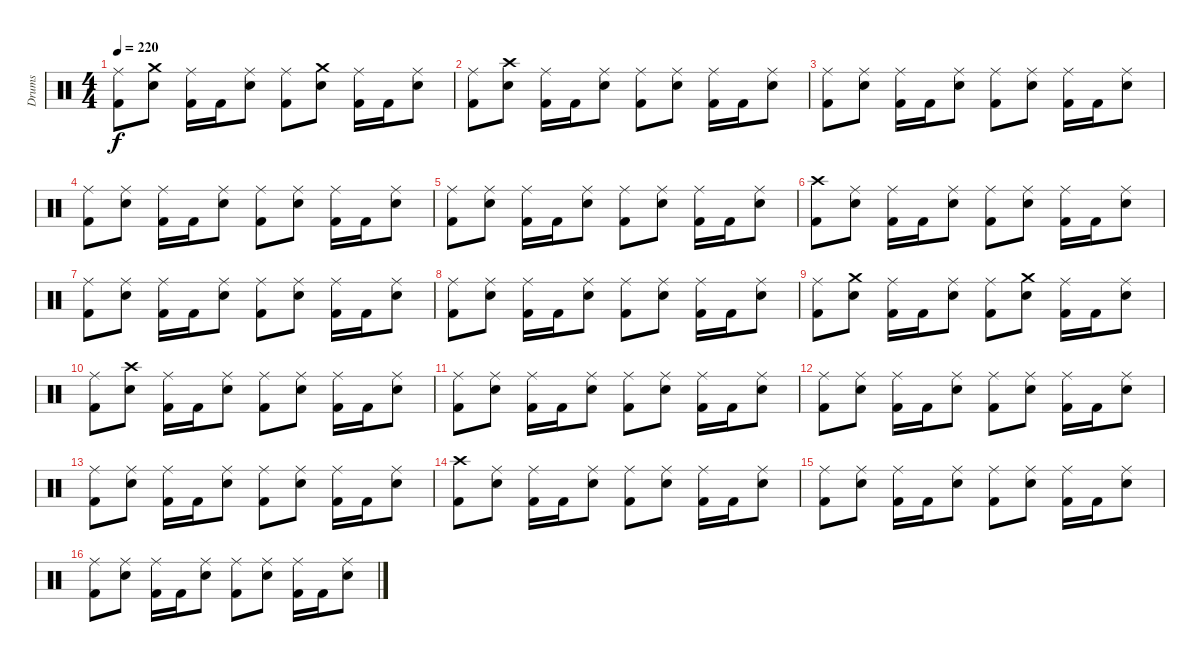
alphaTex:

\track ("Drums" "Drums") {instrument percussion}
\staff {score}
\articulation defaults
\ts (4 4)
\tempo 220
\clef neutral
\ks c
("Ride (middle)" "Kick (hit) 2").8{dy f} ("Crash medium (hit)" "Snare (hit) 2").8 ("Ride (middle)" "Kick (hit) 2").16 "Kick (hit) 2".16 ("Ride (middle)" "Snare (hit) 2").8 ("Ride (middle)" "Kick (hit) 2").8 ("Crash medium (hit)" "Snare (hit) 2").8 ("Ride (middle)" "Kick (hit) 2").16 "Kick (hit) 2".16 ("Ride (middle)" "Snare (hit) 2").8 |
("Ride (middle)" "Kick (hit) 2").8 ("Crash high (hit)" "Snare (hit) 2").8 ("Ride (middle)" "Kick (hit) 2").16 "Kick (hit) 2".16 ("Ride (middle)" "Snare (hit) 2").8 ("Ride (middle)" "Kick (hit) 2").8 ("Ride (middle)" "Snare (hit) 2").8 ("Ride (middle)" "Kick (hit) 2").16 "Kick (hit) 2".16 ("Ride (middle)" "Snare (hit) 2").8 |
("Ride (middle)" "Kick (hit) 2").8 ("Ride (middle)" "Snare (hit) 2").8 ("Ride (middle)" "Kick (hit) 2").16 "Kick (hit) 2".16 ("Ride (middle)" "Snare (hit) 2").8 ("Ride (middle)" "Kick (hit) 2").8 ("Ride (middle)" "Snare (hit) 2").8 ("Ride (middle)" "Kick (hit) 2").16 "Kick (hit) 2".16 ("Ride (middle)" "Snare (hit) 2").8 |
("Ride (middle)" "Kick (hit) 2").8 ("Ride (middle)" "Snare (hit) 2").8 ("Ride (middle)" "Kick (hit) 2").16 "Kick (hit) 2".16 ("Ride (middle)" "Snare (hit) 2").8 ("Ride (middle)" "Kick (hit) 2").8 ("Ride (middle)" "Snare (hit) 2").8 ("Ride (middle)" "Kick (hit) 2").16 "Kick (hit) 2".16 ("Ride (middle)" "Snare (hit) 2").8 |
("Ride (middle)" "Kick (hit) 2").8 ("Ride (middle)" "Snare (hit) 2").8 ("Ride (middle)" "Kick (hit) 2").16 "Kick (hit) 2".16 ("Ride (middle)" "Snare (hit) 2").8 ("Ride (middle)" "Kick (hit) 2").8 ("Ride (middle)" "Snare (hit) 2").8 ("Ride (middle)" "Kick (hit) 2").16 "Kick (hit) 2".16 ("Ride (middle)" "Snare (hit) 2").8 |
("Crash high (hit)" "Kick (hit) 2").8 ("Ride (middle)" "Snare (hit) 2").8 ("Ride (middle)" "Kick (hit) 2").16 "Kick (hit) 2".16 ("Ride (middle)" "Snare (hit) 2").8 ("Ride (middle)" "Kick (hit) 2").8 ("Ride (middle)" "Snare (hit) 2").8 ("Ride (middle)" "Kick (hit) 2").16 "Kick (hit) 2".16 ("Ride (middle)" "Snare (hit) 2").8 |
("Ride (middle)" "Kick (hit) 2").8 ("Ride (middle)" "Snare (hit) 2").8 ("Ride (middle)" "Kick (hit) 2").16 "Kick (hit) 2".16 ("Ride (middle)" "Snare (hit) 2").8 ("Ride (middle)" "Kick (hit) 2").8 ("Ride (middle)" "Snare (hit) 2").8 ("Ride (middle)" "Kick (hit) 2").16 "Kick (hit) 2".16 ("Ride (middle)" "Snare (hit) 2").8 |
("Ride (middle)" "Kick (hit) 2").8 ("Ride (middle)" "Snare (hit) 2").8 ("Ride (middle)" "Kick (hit) 2").16 "Kick (hit) 2".16 ("Ride (middle)" "Snare (hit) 2").8 ("Ride (middle)" "Kick (hit) 2").8 ("Ride (middle)" "Snare (hit) 2").8 ("Ride (middle)" "Kick (hit) 2").16 "Kick (hit) 2".16 ("Ride (middle)" "Snare (hit) 2").8 |
("Ride (middle)" "Kick (hit) 2").8 ("Crash medium (hit)" "Snare (hit) 2").8 ("Ride (middle)" "Kick (hit) 2").16 "Kick (hit) 2".16 ("Ride (middle)" "Snare (hit) 2").8 ("Ride (middle)" "Kick (hit) 2").8 ("Crash medium (hit)" "Snare (hit) 2").8 ("Ride (middle)" "Kick (hit) 2").16 "Kick (hit) 2".16 ("Ride (middle)" "Snare (hit) 2").8 |
("Ride (middle)" "Kick (hit) 2").8 ("Crash high (hit)" "Snare (hit) 2").8 ("Ride (middle)" "Kick (hit) 2").16 "Kick (hit) 2".16 ("Ride (middle)" "Snare (hit) 2").8 ("Ride (middle)" "Kick (hit) 2").8 ("Ride (middle)" "Snare (hit) 2").8 ("Ride (middle)" "Kick (hit) 2").16 "Kick (hit) 2".16 ("Ride (middle)" "Snare (hit) 2").8 |
("Ride (middle)" "Kick (hit) 2").8 ("Ride (middle)" "Snare (hit) 2").8 ("Ride (middle)" "Kick (hit) 2").16 "Kick (hit) 2".16 ("Ride (middle)" "Snare (hit) 2").8 ("Ride (middle)" "Kick (hit) 2").8 ("Ride (middle)" "Snare (hit) 2").8 ("Ride (middle)" "Kick (hit) 2").16 "Kick (hit) 2".16 ("Ride (middle)" "Snare (hit) 2").8 |
("Ride (middle)" "Kick (hit) 2").8 ("Ride (middle)" "Snare (hit) 2").8 ("Ride (middle)" "Kick (hit) 2").16 "Kick (hit) 2".16 ("Ride (middle)" "Snare (hit) 2").8 ("Ride (middle)" "Kick (hit) 2").8 ("Ride (middle)" "Snare (hit) 2").8 ("Ride (middle)" "Kick (hit) 2").16 "Kick (hit) 2".16 ("Ride (middle)" "Snare (hit) 2").8 |
("Ride (middle)" "Kick (hit) 2").8 ("Ride (middle)" "Snare (hit) 2").8 ("Ride (middle)" "Kick (hit) 2").16 "Kick (hit) 2".16 ("Ride (middle)" "Snare (hit) 2").8 ("Ride (middle)" "Kick (hit) 2").8 ("Ride (middle)" "Snare (hit) 2").8 ("Ride (middle)" "Kick (hit) 2").16 "Kick (hit) 2".16 ("Ride (middle)" "Snare (hit) 2").8 |
("Crash high (hit)" "Kick (hit) 2").8 ("Ride (middle)" "Snare (hit) 2").8 ("Ride (middle)" "Kick (hit) 2").16 "Kick (hit) 2".16 ("Ride (middle)" "Snare (hit) 2").8 ("Ride (middle)" "Kick (hit) 2").8 ("Ride (middle)" "Snare (hit) 2").8 ("Ride (middle)" "Kick (hit) 2").16 "Kick (hit) 2".16 ("Ride (middle)" "Snare (hit) 2").8 |
("Ride (middle)" "Kick (hit) 2").8 ("Ride (middle)" "Snare (hit) 2").8 ("Ride (middle)" "Kick (hit) 2").16 "Kick (hit) 2".16 ("Ride (middle)" "Snare (hit) 2").8 ("Ride (middle)" "Kick (hit) 2").8 ("Ride (middle)" "Snare (hit) 2").8 ("Ride (middle)" "Kick (hit) 2").16 "Kick (hit) 2".16 ("Ride (middle)" "Snare (hit) 2").8 |
("Ride (middle)" "Kick (hit) 2").8 ("Ride (middle)" "Snare (hit) 2").8 ("Ride (middle)" "Kick (hit) 2").16 "Kick (hit) 2".16 ("Ride (middle)" "Snare (hit) 2").8 ("Ride (middle)" "Kick (hit) 2").8 ("Ride (middle)" "Snare (hit) 2").8 ("Ride (middle)" "Kick (hit) 2").16 "Kick (hit) 2".16 ("Ride (middle)" "Snare (hit) 2").8
